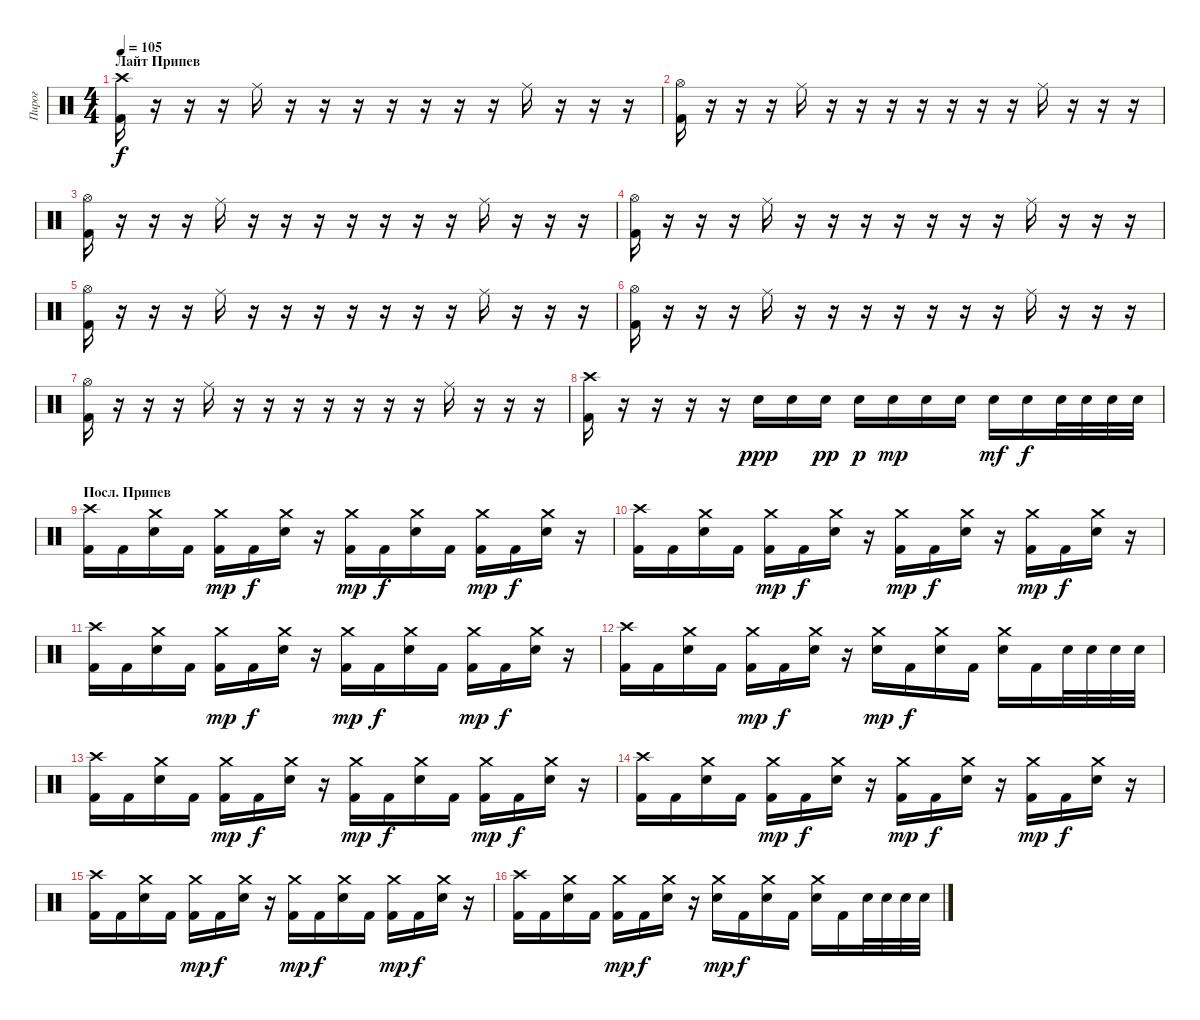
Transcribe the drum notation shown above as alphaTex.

\track ("Пирог" "Пирог") {instrument percussion}
\staff {score}
\articulation defaults
\ts (4 4)
\section ("" "Лайт Припев")
\tempo 105
\clef neutral
\ks c
("Crash high (hit)" "Kick (hit) 2").16{dy f} r.16 r.16 r.16 "Ride (middle)".16 r.16 r.16 r.16 r.16 r.16 r.16 r.16 "Ride (middle)".16 r.16 r.16 r.16 |
("Hi-Hat (open)" "Kick (hit) 2").16 r.16 r.16 r.16 "Ride (middle)".16 r.16 r.16 r.16 r.16 r.16 r.16 r.16 "Ride (middle)".16 r.16 r.16 r.16 |
("Hi-Hat (open)" "Kick (hit) 2").16 r.16 r.16 r.16 "Ride (middle)".16 r.16 r.16 r.16 r.16 r.16 r.16 r.16 "Ride (middle)".16 r.16 r.16 r.16 |
("Hi-Hat (open)" "Kick (hit) 2").16 r.16 r.16 r.16 "Ride (middle)".16 r.16 r.16 r.16 r.16 r.16 r.16 r.16 "Ride (middle)".16 r.16 r.16 r.16 |
("Hi-Hat (open)" "Kick (hit) 2").16 r.16 r.16 r.16 "Ride (middle)".16 r.16 r.16 r.16 r.16 r.16 r.16 r.16 "Ride (middle)".16 r.16 r.16 r.16 |
("Hi-Hat (open)" "Kick (hit) 2").16 r.16 r.16 r.16 "Ride (middle)".16 r.16 r.16 r.16 r.16 r.16 r.16 r.16 "Ride (middle)".16 r.16 r.16 r.16 |
("Hi-Hat (open)" "Kick (hit) 2").16 r.16 r.16 r.16 "Ride (middle)".16 r.16 r.16 r.16 r.16 r.16 r.16 r.16 "Ride (middle)".16 r.16 r.16 r.16 |
("Crash high (hit)" "Kick (hit) 2").16 r.16 r.16 r.16 r.16 "Electric Snare (hit)".16{dy ppp} "Electric Snare (hit)".16 "Electric Snare (hit)".16{dy pp} "Electric Snare (hit)".16{dy p} "Electric Snare (hit)".16{dy mp} "Electric Snare (hit)".16 "Electric Snare (hit)".16 "Electric Snare (hit)".16{dy mf} "Electric Snare (hit)".16{dy f} "Electric Snare (hit)".32 "Electric Snare (hit)".32 "Electric Snare (hit)".32 "Electric Snare (hit)".32 |
\section ("" "Посл. Припев")
("Crash high (hit)" "Kick (hit) 2").16 "Kick (hit) 2".16 ("Crash medium (hit)" "Electric Snare (hit)").16 "Kick (hit) 2".16 ("Crash medium (hit)" "Kick (hit) 2").16{dy mp} "Kick (hit) 2".16{dy f} ("Crash medium (hit)" "Electric Snare (hit)").16 r.16 ("Crash medium (hit)" "Kick (hit) 2").16{dy mp} "Kick (hit) 2".16{dy f} ("Crash medium (hit)" "Electric Snare (hit)").16 "Kick (hit) 2".16 ("Crash medium (hit)" "Kick (hit) 2").16{dy mp} "Kick (hit) 2".16{dy f} ("Crash medium (hit)" "Electric Snare (hit)").16 r.16 |
("Crash high (hit)" "Kick (hit) 2").16 "Kick (hit) 2".16 ("Crash medium (hit)" "Electric Snare (hit)").16 "Kick (hit) 2".16 ("Crash medium (hit)" "Kick (hit) 2").16{dy mp} "Kick (hit) 2".16{dy f} ("Crash medium (hit)" "Electric Snare (hit)").16 r.16 ("Crash medium (hit)" "Kick (hit) 2").16{dy mp} "Kick (hit) 2".16{dy f} ("Crash medium (hit)" "Electric Snare (hit)").16 r.16 ("Crash medium (hit)" "Kick (hit) 2").16{dy mp} "Kick (hit) 2".16{dy f} ("Crash medium (hit)" "Electric Snare (hit)").16 r.16 |
("Crash high (hit)" "Kick (hit) 2").16 "Kick (hit) 2".16 ("Crash medium (hit)" "Electric Snare (hit)").16 "Kick (hit) 2".16 ("Crash medium (hit)" "Kick (hit) 2").16{dy mp} "Kick (hit) 2".16{dy f} ("Crash medium (hit)" "Electric Snare (hit)").16 r.16 ("Crash medium (hit)" "Kick (hit) 2").16{dy mp} "Kick (hit) 2".16{dy f} ("Crash medium (hit)" "Electric Snare (hit)").16 "Kick (hit) 2".16 ("Crash medium (hit)" "Kick (hit) 2").16{dy mp} "Kick (hit) 2".16{dy f} ("Crash medium (hit)" "Electric Snare (hit)").16 r.16 |
("Crash high (hit)" "Kick (hit) 2").16 "Kick (hit) 2".16 ("Crash medium (hit)" "Electric Snare (hit)").16 "Kick (hit) 2".16 ("Crash medium (hit)" "Kick (hit) 2").16{dy mp} "Kick (hit) 2".16{dy f} ("Crash medium (hit)" "Electric Snare (hit)").16 r.16 ("Crash medium (hit)" "Electric Snare (hit)").16{dy mp} "Kick (hit) 2".16{dy f} ("Crash medium (hit)" "Electric Snare (hit)").16 "Kick (hit) 2".16 ("Crash medium (hit)" "Electric Snare (hit)").16 "Kick (hit) 2".16 "Electric Snare (hit)".32 "Electric Snare (hit)".32 "Electric Snare (hit)".32 "Electric Snare (hit)".32 |
("Crash high (hit)" "Kick (hit) 2").16 "Kick (hit) 2".16 ("Crash medium (hit)" "Electric Snare (hit)").16 "Kick (hit) 2".16 ("Crash medium (hit)" "Kick (hit) 2").16{dy mp} "Kick (hit) 2".16{dy f} ("Crash medium (hit)" "Electric Snare (hit)").16 r.16 ("Crash medium (hit)" "Kick (hit) 2").16{dy mp} "Kick (hit) 2".16{dy f} ("Crash medium (hit)" "Electric Snare (hit)").16 "Kick (hit) 2".16 ("Crash medium (hit)" "Kick (hit) 2").16{dy mp} "Kick (hit) 2".16{dy f} ("Crash medium (hit)" "Electric Snare (hit)").16 r.16 |
("Crash high (hit)" "Kick (hit) 2").16 "Kick (hit) 2".16 ("Crash medium (hit)" "Electric Snare (hit)").16 "Kick (hit) 2".16 ("Crash medium (hit)" "Kick (hit) 2").16{dy mp} "Kick (hit) 2".16{dy f} ("Crash medium (hit)" "Electric Snare (hit)").16 r.16 ("Crash medium (hit)" "Kick (hit) 2").16{dy mp} "Kick (hit) 2".16{dy f} ("Crash medium (hit)" "Electric Snare (hit)").16 r.16 ("Crash medium (hit)" "Kick (hit) 2").16{dy mp} "Kick (hit) 2".16{dy f} ("Crash medium (hit)" "Electric Snare (hit)").16 r.16 |
("Crash high (hit)" "Kick (hit) 2").16 "Kick (hit) 2".16 ("Crash medium (hit)" "Electric Snare (hit)").16 "Kick (hit) 2".16 ("Crash medium (hit)" "Kick (hit) 2").16{dy mp} "Kick (hit) 2".16{dy f} ("Crash medium (hit)" "Electric Snare (hit)").16 r.16 ("Crash medium (hit)" "Kick (hit) 2").16{dy mp} "Kick (hit) 2".16{dy f} ("Crash medium (hit)" "Electric Snare (hit)").16 "Kick (hit) 2".16 ("Crash medium (hit)" "Kick (hit) 2").16{dy mp} "Kick (hit) 2".16{dy f} ("Crash medium (hit)" "Electric Snare (hit)").16 r.16 |
("Crash high (hit)" "Kick (hit) 2").16 "Kick (hit) 2".16 ("Crash medium (hit)" "Electric Snare (hit)").16 "Kick (hit) 2".16 ("Crash medium (hit)" "Kick (hit) 2").16{dy mp} "Kick (hit) 2".16{dy f} ("Crash medium (hit)" "Electric Snare (hit)").16 r.16 ("Crash medium (hit)" "Electric Snare (hit)").16{dy mp} "Kick (hit) 2".16{dy f} ("Crash medium (hit)" "Electric Snare (hit)").16 "Kick (hit) 2".16 ("Crash medium (hit)" "Electric Snare (hit)").16 "Kick (hit) 2".16 "Electric Snare (hit)".32 "Electric Snare (hit)".32 "Electric Snare (hit)".32 "Electric Snare (hit)".32
